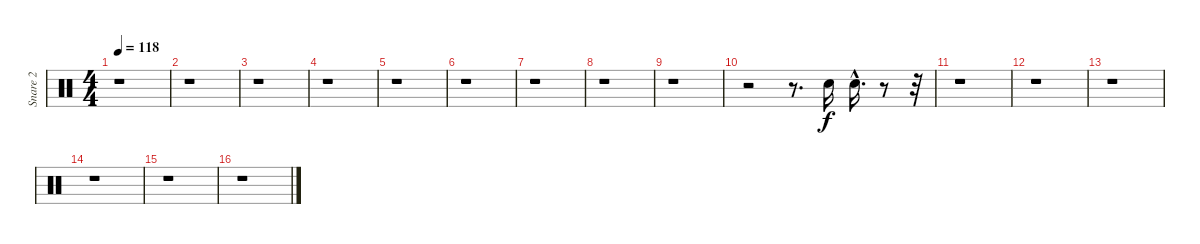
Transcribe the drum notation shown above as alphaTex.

\track ("Snare 2             " "Snare 2   ") {instrument percussion}
\staff {score}
\articulation defaults
\ts (4 4)
\tempo 118
\clef neutral
\ks c
r.1{dy f} |
r.1 |
r.1 |
r.1 |
r.1 |
r.1 |
r.1 |
r.1 |
r.1 |
r.2 r.8{d} "Electric Snare (hit)".16 "Electric Snare (hit)"{hac}.16{d} r.8 r.32 |
r.1 |
r.1 |
r.1 |
r.1 |
r.1 |
r.1
